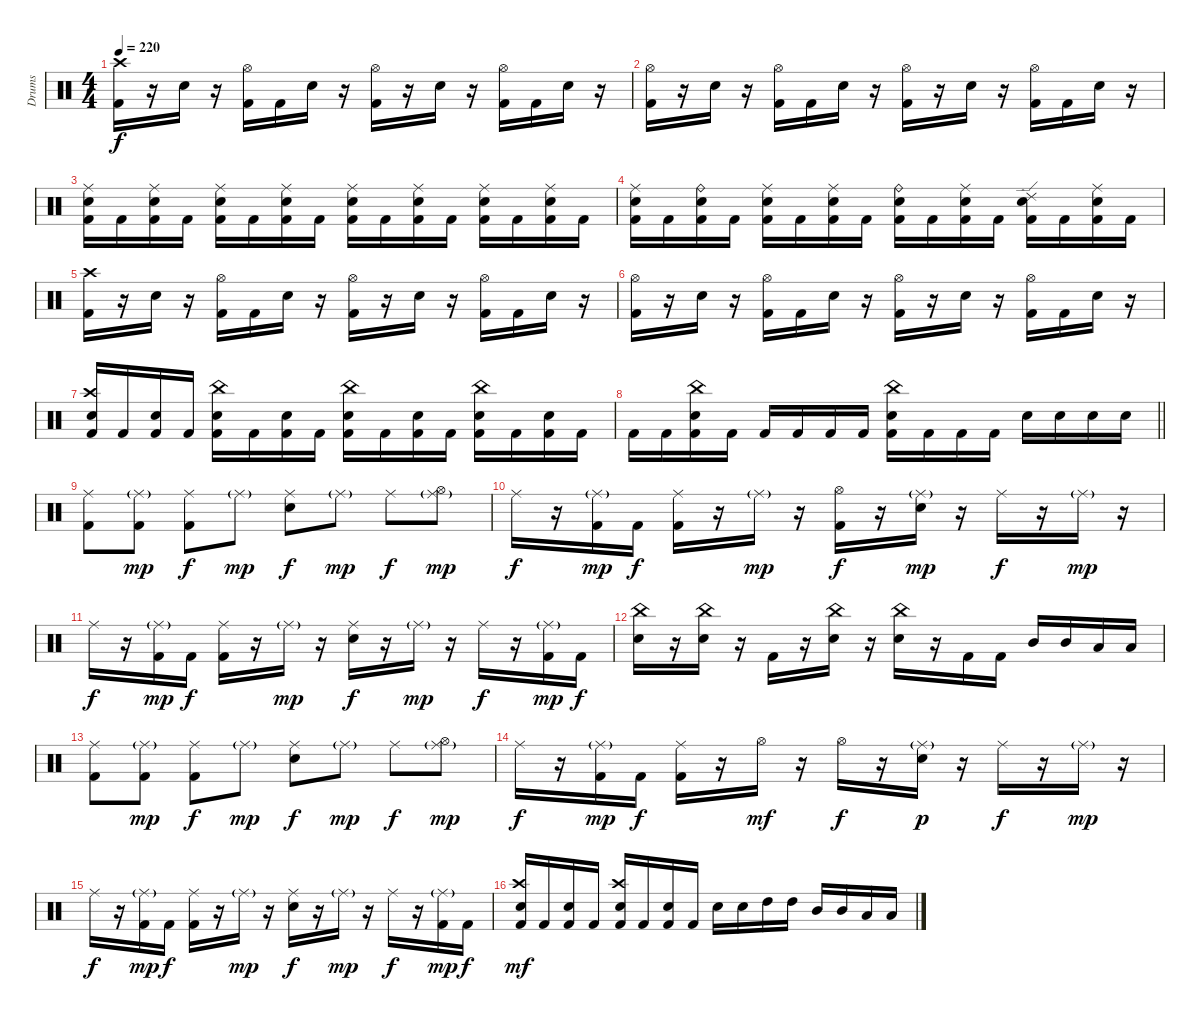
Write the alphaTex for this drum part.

\track ("Drums" "Drums") {instrument percussion}
\staff {score}
\articulation defaults
\ts (4 4)
\tempo 220
\clef neutral
\ks c
("Kick (hit) 2" "Crash high (hit)").16{dy f} r.16 "Electric Snare (hit)".16 r.16 ("Kick (hit) 2" "Hi-Hat (open)").16 "Kick (hit) 2".16 "Electric Snare (hit)".16 r.16 ("Kick (hit) 2" "Hi-Hat (open)").16 r.16 "Electric Snare (hit)".16 r.16 ("Kick (hit) 2" "Hi-Hat (open)").16 "Kick (hit) 2".16 "Electric Snare (hit)".16 r.16 |
("Kick (hit) 2" "Hi-Hat (open)").16 r.16 "Electric Snare (hit)".16 r.16 ("Kick (hit) 2" "Hi-Hat (open)").16 "Kick (hit) 2".16 "Electric Snare (hit)".16 r.16 ("Kick (hit) 2" "Hi-Hat (open)").16 r.16 "Electric Snare (hit)".16 r.16 ("Kick (hit) 2" "Hi-Hat (open)").16 "Kick (hit) 2".16 "Electric Snare (hit)".16 r.16 |
("Electric Snare (hit)" "Kick (hit) 2" "Ride (middle)").16 "Kick (hit) 2".16 ("Electric Snare (hit)" "Kick (hit) 2" "Ride (middle)").16 "Kick (hit) 2".16 ("Electric Snare (hit)" "Kick (hit) 2" "Ride (middle)").16 "Kick (hit) 2".16 ("Electric Snare (hit)" "Kick (hit) 2" "Ride (middle)").16 "Kick (hit) 2".16 ("Electric Snare (hit)" "Kick (hit) 2" "Ride (middle)").16 "Kick (hit) 2".16 ("Electric Snare (hit)" "Kick (hit) 2" "Ride (middle)").16 "Kick (hit) 2".16 ("Electric Snare (hit)" "Kick (hit) 2" "Ride (middle)").16 "Kick (hit) 2".16 ("Electric Snare (hit)" "Kick (hit) 2" "Ride (middle)").16 "Kick (hit) 2".16 |
("Electric Snare (hit)" "Kick (hit) 2" "Ride (middle)").16 "Kick (hit) 2".16 ("Electric Snare (hit)" "Kick (hit) 2" "Ride (bell)").16 "Kick (hit) 2".16 ("Electric Snare (hit)" "Kick (hit) 2" "Ride (middle)").16 "Kick (hit) 2".16 ("Electric Snare (hit)" "Kick (hit) 2" "Ride (middle)").16 "Kick (hit) 2".16 ("Electric Snare (hit)" "Kick (hit) 2" "Ride (bell)").16 "Kick (hit) 2".16 ("Electric Snare (hit)" "Kick (hit) 2" "Ride (middle)").16 "Kick (hit) 2".16 ("Electric Snare (hit)" "Kick (hit) 2" "Ride (edge) 2").16 "Kick (hit) 2".16 ("Electric Snare (hit)" "Kick (hit) 2" "Ride (middle)").16 "Kick (hit) 2".16 |
("Kick (hit) 2" "Crash high (hit)").16 r.16 "Electric Snare (hit)".16 r.16 ("Kick (hit) 2" "Hi-Hat (open)").16 "Kick (hit) 2".16 "Electric Snare (hit)".16 r.16 ("Kick (hit) 2" "Hi-Hat (open)").16 r.16 "Electric Snare (hit)".16 r.16 ("Kick (hit) 2" "Hi-Hat (open)").16 "Kick (hit) 2".16 "Electric Snare (hit)".16 r.16 |
("Kick (hit) 2" "Hi-Hat (open)").16 r.16 "Electric Snare (hit)".16 r.16 ("Kick (hit) 2" "Hi-Hat (open)").16 "Kick (hit) 2".16 "Electric Snare (hit)".16 r.16 ("Kick (hit) 2" "Hi-Hat (open)").16 r.16 "Electric Snare (hit)".16 r.16 ("Kick (hit) 2" "Hi-Hat (open)").16 "Kick (hit) 2".16 "Electric Snare (hit)".16 r.16 |
("Kick (hit) 2" "Electric Snare (hit)" "Crash high (hit)").16 "Kick (hit) 2".16 ("Kick (hit) 2" "Electric Snare (hit)").16 "Kick (hit) 2".16 ("Kick (hit) 2" "Electric Snare (hit)" "China (hit)").16 "Kick (hit) 2".16 ("Kick (hit) 2" "Electric Snare (hit)").16 "Kick (hit) 2".16 ("Kick (hit) 2" "Electric Snare (hit)" "China (hit)").16 "Kick (hit) 2".16 ("Kick (hit) 2" "Electric Snare (hit)").16 "Kick (hit) 2".16 ("Kick (hit) 2" "Electric Snare (hit)" "China (hit)").16 "Kick (hit) 2".16 ("Kick (hit) 2" "Electric Snare (hit)").16 "Kick (hit) 2".16 |
\barLineRight lightlight "Kick (hit) 2".16 "Kick (hit) 2".16
("Kick (hit) 2" "Electric Snare (hit)" "China (hit)").16 "Kick (hit) 2".16 "Kick (hit) 2".16 "Kick (hit) 2".16 "Kick (hit) 2".16 "Kick (hit) 2".16 ("Kick (hit) 2" "Electric Snare (hit)" "China (hit)").16 "Kick (hit) 2".16 "Kick (hit) 2".16 "Kick (hit) 2".16 "Electric Snare (hit)".16 "Electric Snare (hit)".16 "Electric Snare (hit)".16 "Electric Snare (hit)".16 |
("Kick (hit) 2" "Ride (middle)").8 ("Kick (hit) 2" "Ride (middle)"{g}).8{dy mp} ("Kick (hit) 2" "Ride (middle)").8{dy f} "Ride (middle)"{g}.8{dy mp} ("Electric Snare (hit)" "Ride (middle)").8{dy f} "Ride (middle)"{g}.8{dy mp} "Ride (middle)".8{dy f} ("Hi-Hat (open)" "Ride (middle)"{g}).8{dy mp} |
"Ride (middle)".16{dy f} r.16 ("Kick (hit) 2" "Ride (middle)"{g}).16{dy mp} "Kick (hit) 2".16{dy f} ("Kick (hit) 2" "Ride (middle)").16 r.16 "Ride (middle)"{g}.16{dy mp} r.16 ("Kick (hit) 2" "Hi-Hat (open)").16{dy f} r.16 ("Electric Snare (hit)" "Ride (middle)"{g}).16{dy mp} r.16 "Ride (middle)".16{dy f} r.16 "Ride (middle)"{g}.16{dy mp} r.16 |
"Ride (middle)".16{dy f} r.16 ("Kick (hit) 2" "Ride (middle)"{g}).16{dy mp} "Kick (hit) 2".16{dy f} ("Kick (hit) 2" "Ride (middle)").16 r.16 "Ride (middle)"{g}.16{dy mp} r.16 ("Electric Snare (hit)" "Ride (middle)").16{dy f} r.16 "Ride (middle)"{g}.16{dy mp} r.16 "Ride (middle)".16{dy f} r.16 ("Kick (hit) 2" "Ride (middle)"{g}).16{dy mp} "Kick (hit) 2".16{dy f} |
("Electric Snare (hit)" "China (hit)").16 r.16 ("Electric Snare (hit)" "China (hit)").16 r.16 "Kick (hit) 2".16 r.16 ("Electric Snare (hit)" "China (hit)").16 r.16 ("Electric Snare (hit)" "China (hit)").16 r.16 "Kick (hit) 2".16 "Kick (hit) 2".16 "Mid Tom (hit)".16 "Mid Tom (hit)".16 "Low Tom (hit)".16 "Low Tom (hit)".16 |
("Kick (hit) 2" "Ride (middle)").8 ("Kick (hit) 2" "Ride (middle)"{g}).8{dy mp} ("Kick (hit) 2" "Ride (middle)").8{dy f} "Ride (middle)"{g}.8{dy mp} ("Electric Snare (hit)" "Ride (middle)").8{dy f} "Ride (middle)"{g}.8{dy mp} "Ride (middle)".8{dy f} ("Hi-Hat (open)" "Ride (middle)"{g}).8{dy mp} |
"Ride (middle)".16{dy f} r.16 ("Kick (hit) 2" "Ride (middle)"{g}).16{dy mp} "Kick (hit) 2".16{dy f} ("Kick (hit) 2" "Ride (middle)").16 r.16 "Hi-Hat (open)".16{dy mf} r.16 "Hi-Hat (open)".16{dy f} r.16 ("Electric Snare (hit)" "Ride (middle)"{g}).16{dy p} r.16 "Ride (middle)".16{dy f} r.16 "Ride (middle)"{g}.16{dy mp} r.16 |
"Ride (middle)".16{dy f} r.16 ("Kick (hit) 2" "Ride (middle)"{g}).16{dy mp} "Kick (hit) 2".16{dy f} ("Kick (hit) 2" "Ride (middle)").16 r.16 "Ride (middle)"{g}.16{dy mp} r.16 ("Electric Snare (hit)" "Ride (middle)").16{dy f} r.16 "Ride (middle)"{g}.16{dy mp} r.16 "Ride (middle)".16{dy f} r.16 ("Kick (hit) 2" "Ride (middle)"{g}).16{dy mp} "Kick (hit) 2".16{dy f} |
("Kick (hit) 2" "Electric Snare (hit)" "Crash high (hit)").16{dy mf} "Kick (hit) 2".16 ("Kick (hit) 2" "Electric Snare (hit)").16 "Kick (hit) 2".16 ("Kick (hit) 2" "Electric Snare (hit)" "Crash high (hit)").16 "Kick (hit) 2".16 ("Kick (hit) 2" "Electric Snare (hit)").16 "Kick (hit) 2".16 "Electric Snare (hit)".16 "Electric Snare (hit)".16 "High Tom (hit)".16 "High Tom (hit)".16 "Mid Tom (hit)".16 "Mid Tom (hit)".16 "Low Tom (hit)".16 "Low Tom (hit)".16
